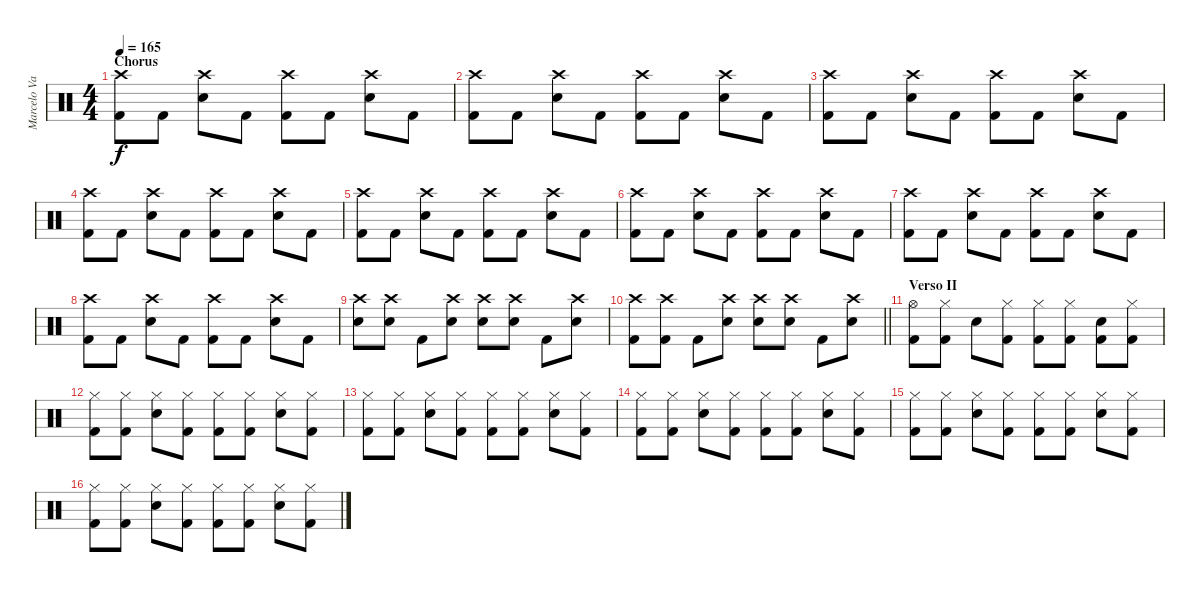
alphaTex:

\track ("Marcelo Valenzuela (Bateria)" "Marcelo Va") {instrument percussion}
\staff {score}
\articulation defaults
\ts (4 4)
\section ("" "Chorus")
\tempo 165
\clef neutral
\ks c
("Crash high (hit)" "Kick (hit) 2").8{dy f} "Kick (hit) 2".8 ("Crash high (hit)" "Electric Snare (hit)").8 "Kick (hit) 2".8 ("Crash high (hit)" "Kick (hit) 2").8 "Kick (hit) 2".8 ("Crash high (hit)" "Electric Snare (hit)").8 "Kick (hit) 2".8 |
("Crash high (hit)" "Kick (hit) 2").8 "Kick (hit) 2".8 ("Crash high (hit)" "Electric Snare (hit)").8 "Kick (hit) 2".8 ("Crash high (hit)" "Kick (hit) 2").8 "Kick (hit) 2".8 ("Crash high (hit)" "Electric Snare (hit)").8 "Kick (hit) 2".8 |
("Crash high (hit)" "Kick (hit) 2").8 "Kick (hit) 2".8 ("Crash high (hit)" "Electric Snare (hit)").8 "Kick (hit) 2".8 ("Crash high (hit)" "Kick (hit) 2").8 "Kick (hit) 2".8 ("Crash high (hit)" "Electric Snare (hit)").8 "Kick (hit) 2".8 |
("Crash high (hit)" "Kick (hit) 2").8 "Kick (hit) 2".8 ("Crash high (hit)" "Electric Snare (hit)").8 "Kick (hit) 2".8 ("Crash high (hit)" "Kick (hit) 2").8 "Kick (hit) 2".8 ("Crash high (hit)" "Electric Snare (hit)").8 "Kick (hit) 2".8 |
("Crash high (hit)" "Kick (hit) 2").8 "Kick (hit) 2".8 ("Crash high (hit)" "Electric Snare (hit)").8 "Kick (hit) 2".8 ("Crash high (hit)" "Kick (hit) 2").8 "Kick (hit) 2".8 ("Crash high (hit)" "Electric Snare (hit)").8 "Kick (hit) 2".8 |
("Crash high (hit)" "Kick (hit) 2").8 "Kick (hit) 2".8 ("Crash high (hit)" "Electric Snare (hit)").8 "Kick (hit) 2".8 ("Crash high (hit)" "Kick (hit) 2").8 "Kick (hit) 2".8 ("Crash high (hit)" "Electric Snare (hit)").8 "Kick (hit) 2".8 |
("Crash high (hit)" "Kick (hit) 2").8 "Kick (hit) 2".8 ("Crash high (hit)" "Electric Snare (hit)").8 "Kick (hit) 2".8 ("Crash high (hit)" "Kick (hit) 2").8 "Kick (hit) 2".8 ("Crash high (hit)" "Electric Snare (hit)").8 "Kick (hit) 2".8 |
("Crash high (hit)" "Kick (hit) 2").8 "Kick (hit) 2".8 ("Crash high (hit)" "Electric Snare (hit)").8 "Kick (hit) 2".8 ("Crash high (hit)" "Kick (hit) 2").8 "Kick (hit) 2".8 ("Crash high (hit)" "Electric Snare (hit)").8 "Kick (hit) 2".8 |
("Crash high (hit)" "Electric Snare (hit)").8 ("Crash high (hit)" "Electric Snare (hit)").8 "Kick (hit) 2".8 ("Crash high (hit)" "Electric Snare (hit)").8 ("Crash high (hit)" "Electric Snare (hit)").8 ("Crash high (hit)" "Electric Snare (hit)").8 "Kick (hit) 2".8 ("Crash high (hit)" "Electric Snare (hit)").8 |
\barLineRight lightlight
("Crash high (hit)" "Kick (hit) 2").8 ("Crash high (hit)" "Kick (hit) 2").8 "Kick (hit) 2".8 ("Crash high (hit)" "Electric Snare (hit)").8 ("Crash high (hit)" "Electric Snare (hit)").8 ("Crash high (hit)" "Electric Snare (hit)").8 "Kick (hit) 2".8 ("Crash high (hit)" "Electric Snare (hit)").8 |
\section ("" "Verso II")
("Hi-Hat (open)" "Kick (hit) 2").8 ("Hi-Hat (closed)" "Kick (hit) 2").8 "Electric Snare (hit)".8 ("Hi-Hat (closed)" "Kick (hit) 2").8 ("Hi-Hat (closed)" "Kick (hit) 2").8 ("Hi-Hat (closed)" "Kick (hit) 2").8 ("Electric Snare (hit)" "Kick (hit) 2").8 ("Hi-Hat (closed)" "Kick (hit) 2").8 |
("Hi-Hat (closed)" "Kick (hit) 2").8 ("Hi-Hat (closed)" "Kick (hit) 2").8 ("Hi-Hat (closed)" "Electric Snare (hit)").8 ("Hi-Hat (closed)" "Kick (hit) 2").8 ("Hi-Hat (closed)" "Kick (hit) 2").8 ("Hi-Hat (closed)" "Kick (hit) 2").8 ("Hi-Hat (closed)" "Electric Snare (hit)").8 ("Hi-Hat (closed)" "Kick (hit) 2").8 |
("Hi-Hat (closed)" "Kick (hit) 2").8 ("Hi-Hat (closed)" "Kick (hit) 2").8 ("Hi-Hat (closed)" "Electric Snare (hit)").8 ("Hi-Hat (closed)" "Kick (hit) 2").8 ("Hi-Hat (closed)" "Kick (hit) 2").8 ("Hi-Hat (closed)" "Kick (hit) 2").8 ("Hi-Hat (closed)" "Electric Snare (hit)").8 ("Hi-Hat (closed)" "Kick (hit) 2").8 |
("Hi-Hat (closed)" "Kick (hit) 2").8 ("Hi-Hat (closed)" "Kick (hit) 2").8 ("Hi-Hat (closed)" "Electric Snare (hit)").8 ("Hi-Hat (closed)" "Kick (hit) 2").8 ("Hi-Hat (closed)" "Kick (hit) 2").8 ("Hi-Hat (closed)" "Kick (hit) 2").8 ("Hi-Hat (closed)" "Electric Snare (hit)").8 ("Hi-Hat (closed)" "Kick (hit) 2").8 |
("Hi-Hat (closed)" "Kick (hit) 2").8 ("Hi-Hat (closed)" "Kick (hit) 2").8 ("Hi-Hat (closed)" "Electric Snare (hit)").8 ("Hi-Hat (closed)" "Kick (hit) 2").8 ("Hi-Hat (closed)" "Kick (hit) 2").8 ("Hi-Hat (closed)" "Kick (hit) 2").8 ("Hi-Hat (closed)" "Electric Snare (hit)").8 ("Hi-Hat (closed)" "Kick (hit) 2").8 |
("Hi-Hat (closed)" "Kick (hit) 2").8 ("Hi-Hat (closed)" "Kick (hit) 2").8 ("Hi-Hat (closed)" "Electric Snare (hit)").8 ("Hi-Hat (closed)" "Kick (hit) 2").8 ("Hi-Hat (closed)" "Kick (hit) 2").8 ("Hi-Hat (closed)" "Kick (hit) 2").8 ("Hi-Hat (closed)" "Electric Snare (hit)").8 ("Hi-Hat (closed)" "Kick (hit) 2").8
